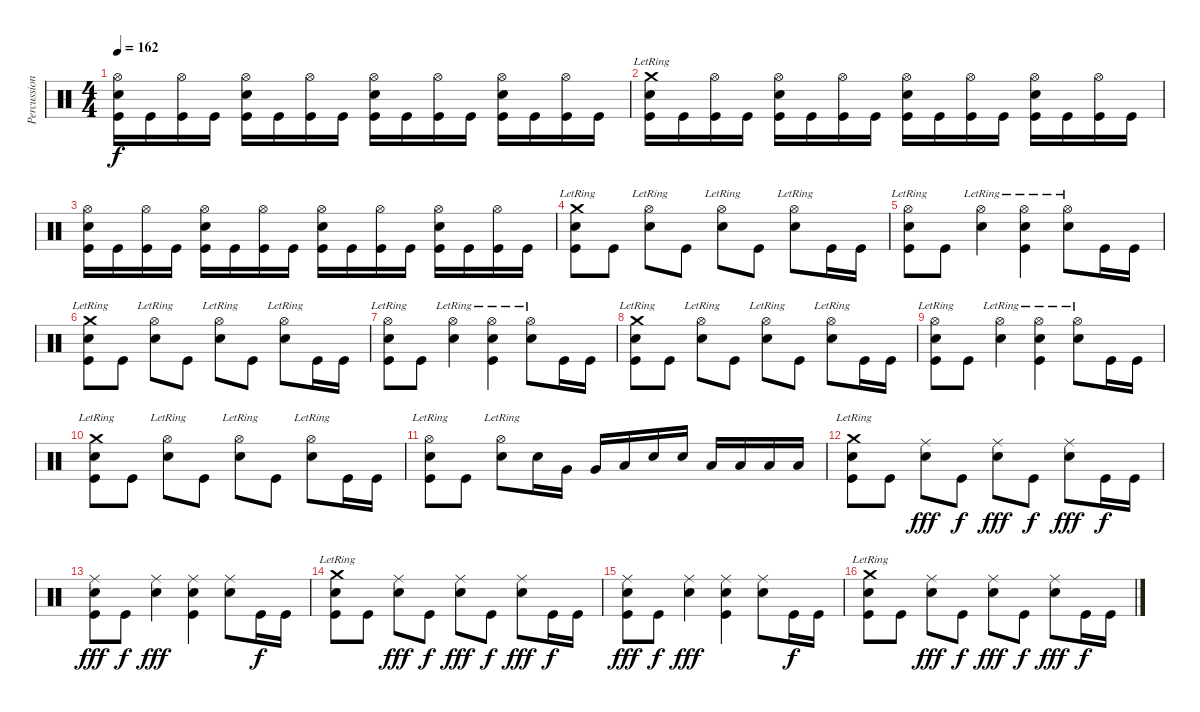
\track ("Percussions" "Percussion") {instrument percussion}
\staff {score}
\articulation defaults
\ts (4 4)
\tempo 162
\clef neutral
\ks c
("Hi-Hat (open)" "Snare (hit) 2" "Kick (hit)").16{dy f} "Kick (hit)".16 ("Hi-Hat (open)" "Kick (hit)").16 "Kick (hit)".16 ("Hi-Hat (open)" "Snare (hit) 2" "Kick (hit)").16 "Kick (hit)".16 ("Hi-Hat (open)" "Kick (hit)").16 "Kick (hit)".16 ("Hi-Hat (open)" "Snare (hit) 2" "Kick (hit)").16 "Kick (hit)".16 ("Hi-Hat (open)" "Kick (hit)").16 "Kick (hit)".16 ("Hi-Hat (open)" "Snare (hit) 2" "Kick (hit)").16 "Kick (hit)".16 ("Hi-Hat (open)" "Kick (hit)").16 "Kick (hit)".16 |
("Crash medium (hit)"{lr} "Snare (hit) 2" "Kick (hit)").16 "Kick (hit)".16 ("Hi-Hat (open)" "Kick (hit)").16 "Kick (hit)".16 ("Hi-Hat (open)" "Snare (hit) 2" "Kick (hit)").16 "Kick (hit)".16 ("Hi-Hat (open)" "Kick (hit)").16 "Kick (hit)".16 ("Hi-Hat (open)" "Snare (hit) 2" "Kick (hit)").16 "Kick (hit)".16 ("Hi-Hat (open)" "Kick (hit)").16 "Kick (hit)".16 ("Hi-Hat (open)" "Snare (hit) 2" "Kick (hit)").16 "Kick (hit)".16 ("Hi-Hat (open)" "Kick (hit)").16 "Kick (hit)".16 |
("Hi-Hat (open)" "Snare (hit) 2" "Kick (hit)").16 "Kick (hit)".16 ("Hi-Hat (open)" "Kick (hit)").16 "Kick (hit)".16 ("Hi-Hat (open)" "Snare (hit) 2" "Kick (hit)").16 "Kick (hit)".16 ("Hi-Hat (open)" "Kick (hit)").16 "Kick (hit)".16 ("Hi-Hat (open)" "Snare (hit) 2" "Kick (hit)").16 "Kick (hit)".16 ("Hi-Hat (open)" "Kick (hit)").16 "Kick (hit)".16 ("Hi-Hat (open)" "Snare (hit) 2" "Kick (hit)").16 "Kick (hit)".16 ("Hi-Hat (open)" "Kick (hit)").16 "Kick (hit)".16 |
("Crash medium (hit)"{lr} "Snare (hit) 2" "Kick (hit)").8 "Kick (hit)".8 ("Hi-Hat (open)"{lr} "Snare (hit) 2").8 "Kick (hit)".8 ("Hi-Hat (open)"{lr} "Snare (hit) 2").8 "Kick (hit)".8 ("Hi-Hat (open)"{lr} "Snare (hit) 2").8 "Kick (hit)".16 "Kick (hit)".16 |
("Hi-Hat (open)"{lr} "Snare (hit) 2" "Kick (hit)").8 "Kick (hit)".8 ("Hi-Hat (open)"{lr} "Snare (hit) 2").4 ("Hi-Hat (open)"{lr} "Snare (hit) 2" "Kick (hit)").4 ("Hi-Hat (open)"{lr} "Snare (hit) 2").8 "Kick (hit)".16 "Kick (hit)".16 |
("Crash medium (hit)"{lr} "Snare (hit) 2" "Kick (hit)").8 "Kick (hit)".8 ("Hi-Hat (open)"{lr} "Snare (hit) 2").8 "Kick (hit)".8 ("Hi-Hat (open)"{lr} "Snare (hit) 2").8 "Kick (hit)".8 ("Hi-Hat (open)"{lr} "Snare (hit) 2").8 "Kick (hit)".16 "Kick (hit)".16 |
("Hi-Hat (open)"{lr} "Snare (hit) 2" "Kick (hit)").8 "Kick (hit)".8 ("Hi-Hat (open)"{lr} "Snare (hit) 2").4 ("Hi-Hat (open)"{lr} "Snare (hit) 2" "Kick (hit)").4 ("Hi-Hat (open)"{lr} "Snare (hit) 2").8 "Kick (hit)".16 "Kick (hit)".16 |
("Crash medium (hit)"{lr} "Snare (hit) 2" "Kick (hit)").8 "Kick (hit)".8 ("Hi-Hat (open)"{lr} "Snare (hit) 2").8 "Kick (hit)".8 ("Hi-Hat (open)"{lr} "Snare (hit) 2").8 "Kick (hit)".8 ("Hi-Hat (open)"{lr} "Snare (hit) 2").8 "Kick (hit)".16 "Kick (hit)".16 |
("Hi-Hat (open)"{lr} "Snare (hit) 2" "Kick (hit)").8 "Kick (hit)".8 ("Hi-Hat (open)"{lr} "Snare (hit) 2").4 ("Hi-Hat (open)"{lr} "Snare (hit) 2" "Kick (hit)").4 ("Hi-Hat (open)"{lr} "Snare (hit) 2").8 "Kick (hit)".16 "Kick (hit)".16 |
("Crash medium (hit)"{lr} "Snare (hit) 2" "Kick (hit)").8 "Kick (hit)".8 ("Hi-Hat (open)"{lr} "Snare (hit) 2").8 "Kick (hit)".8 ("Hi-Hat (open)"{lr} "Snare (hit) 2").8 "Kick (hit)".8 ("Hi-Hat (open)"{lr} "Snare (hit) 2").8 "Kick (hit)".16 "Kick (hit)".16 |
("Hi-Hat (open)"{lr} "Snare (hit) 2" "Kick (hit)").8 "Kick (hit)".8 ("Hi-Hat (open)"{lr} "Snare (hit) 2").8 "Snare (hit) 2".16 "Very Low Tom (hit)".16 "Very Low Tom (hit)".16 "Low Floor Tom (hit)".16 "Snare (hit) 2".16 "Snare (hit) 2".16 "Low Floor Tom (hit)".16 "Low Floor Tom (hit)".16 "Low Floor Tom (hit)".16 "Low Floor Tom (hit)".16 |
("Crash medium (hit)"{lr} "Snare (hit) 2" "Kick (hit)").8 "Kick (hit)".8 ("Ride (middle)" "Snare (hit) 2").8{dy fff} "Kick (hit)".8{dy f} ("Ride (middle)" "Snare (hit) 2").8{dy fff} "Kick (hit)".8{dy f} ("Ride (middle)" "Snare (hit) 2").8{dy fff} "Kick (hit)".16{dy f} "Kick (hit)".16 |
("Ride (middle)" "Snare (hit) 2" "Kick (hit)").8{dy fff} "Kick (hit)".8{dy f} ("Ride (middle)" "Snare (hit) 2").4{dy fff} ("Ride (middle)" "Snare (hit) 2" "Kick (hit)").4 ("Ride (middle)" "Snare (hit) 2").8 "Kick (hit)".16{dy f} "Kick (hit)".16 |
("Crash medium (hit)"{lr} "Snare (hit) 2" "Kick (hit)").8 "Kick (hit)".8 ("Ride (middle)" "Snare (hit) 2").8{dy fff} "Kick (hit)".8{dy f} ("Ride (middle)" "Snare (hit) 2").8{dy fff} "Kick (hit)".8{dy f} ("Ride (middle)" "Snare (hit) 2").8{dy fff} "Kick (hit)".16{dy f} "Kick (hit)".16 |
("Ride (middle)" "Snare (hit) 2" "Kick (hit)").8{dy fff} "Kick (hit)".8{dy f} ("Ride (middle)" "Snare (hit) 2").4{dy fff} ("Ride (middle)" "Snare (hit) 2" "Kick (hit)").4 ("Ride (middle)" "Snare (hit) 2").8 "Kick (hit)".16{dy f} "Kick (hit)".16 |
("Crash medium (hit)"{lr} "Snare (hit) 2" "Kick (hit)").8 "Kick (hit)".8 ("Ride (middle)" "Snare (hit) 2").8{dy fff} "Kick (hit)".8{dy f} ("Ride (middle)" "Snare (hit) 2").8{dy fff} "Kick (hit)".8{dy f} ("Ride (middle)" "Snare (hit) 2").8{dy fff} "Kick (hit)".16{dy f} "Kick (hit)".16
